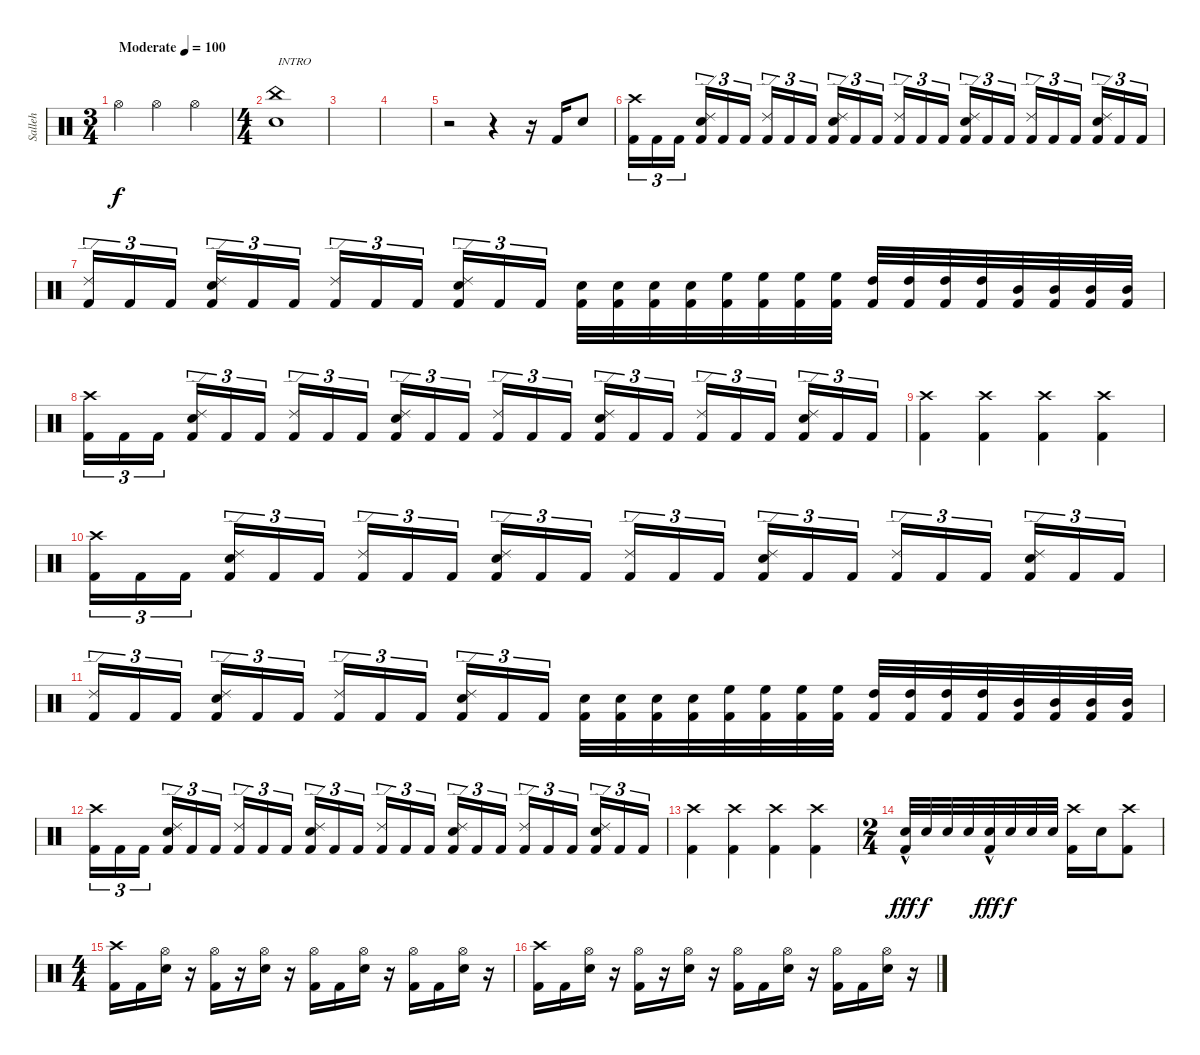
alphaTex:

\track ("Salleh" "Salleh") {instrument percussion}
\staff {score}
\articulation defaults
\ts (3 4)
\tempo (100 "Moderate")
\clef neutral
\ks c "Hi-Hat (open)".4{dy f} "Hi-Hat (open)".4 "Hi-Hat (open)".4
|
\ts (4 4)
("Electric Snare (hit)" "China (hit)").1{txt "INTRO"} |
|
|
r.2 r.4 r.16 "Kick (hit) 2".16 "Snare (hit) 2".8 |
("Crash high (hit)" "Kick (hit) 2").16{tu (3 2)} "Kick (hit) 2".16{tu (3 2)} "Kick (hit) 2".16{tu (3 2) beam splitsecondary} ("Ride (edge) 2" "Electric Snare (hit)" "Kick (hit) 2").16{tu (3 2)} "Kick (hit) 2".16{tu (3 2)} "Kick (hit) 2".16{tu (3 2)} ("Ride (edge) 2" "Kick (hit) 2").16{tu (3 2)} "Kick (hit) 2".16{tu (3 2)} "Kick (hit) 2".16{tu (3 2) beam splitsecondary} ("Ride (edge) 2" "Electric Snare (hit)" "Kick (hit) 2").16{tu (3 2)} "Kick (hit) 2".16{tu (3 2)} "Kick (hit) 2".16{tu (3 2)} ("Ride (edge) 2" "Kick (hit) 2").16{tu (3 2)} "Kick (hit) 2".16{tu (3 2)} "Kick (hit) 2".16{tu (3 2) beam splitsecondary} ("Ride (edge) 2" "Electric Snare (hit)" "Kick (hit) 2").16{tu (3 2)} "Kick (hit) 2".16{tu (3 2)} "Kick (hit) 2".16{tu (3 2)} ("Ride (edge) 2" "Kick (hit) 2").16{tu (3 2)} "Kick (hit) 2".16{tu (3 2)} "Kick (hit) 2".16{tu (3 2) beam splitsecondary} ("Ride (edge) 2" "Electric Snare (hit)" "Kick (hit) 2").16{tu (3 2)} "Kick (hit) 2".16{tu (3 2)} "Kick (hit) 2".16{tu (3 2)} |
("Ride (edge) 2" "Kick (hit) 2").16{tu (3 2)} "Kick (hit) 2".16{tu (3 2)} "Kick (hit) 2".16{tu (3 2) beam splitsecondary} ("Ride (edge) 2" "Electric Snare (hit)" "Kick (hit) 2").16{tu (3 2)} "Kick (hit) 2".16{tu (3 2)} "Kick (hit) 2".16{tu (3 2)} ("Ride (edge) 2" "Kick (hit) 2").16{tu (3 2)} "Kick (hit) 2".16{tu (3 2)} "Kick (hit) 2".16{tu (3 2) beam splitsecondary} ("Ride (edge) 2" "Electric Snare (hit)" "Kick (hit) 2").16{tu (3 2)} "Kick (hit) 2".16{tu (3 2)} "Kick (hit) 2".16{tu (3 2)} ("Electric Snare (hit)" "Kick (hit) 2").32 ("Electric Snare (hit)" "Kick (hit) 2").32 ("Electric Snare (hit)" "Kick (hit) 2").32 ("Electric Snare (hit)" "Kick (hit) 2").32 ("High Floor Tom (hit)" "Kick (hit) 2").32 ("High Floor Tom (hit)" "Kick (hit) 2").32 ("High Floor Tom (hit)" "Kick (hit) 2").32 ("High Floor Tom (hit)" "Kick (hit) 2").32 ("High Tom (hit)" "Kick (hit) 2").32 ("High Tom (hit)" "Kick (hit) 2").32 ("High Tom (hit)" "Kick (hit) 2").32 ("High Tom (hit)" "Kick (hit) 2").32 ("Mid Tom (hit)" "Kick (hit) 2").32 ("Mid Tom (hit)" "Kick (hit) 2").32 ("Mid Tom (hit)" "Kick (hit) 2").32 ("Mid Tom (hit)" "Kick (hit) 2").32 |
("Crash high (hit)" "Kick (hit) 2").16{tu (3 2)} "Kick (hit) 2".16{tu (3 2)} "Kick (hit) 2".16{tu (3 2) beam splitsecondary} ("Ride (edge) 2" "Electric Snare (hit)" "Kick (hit) 2").16{tu (3 2)} "Kick (hit) 2".16{tu (3 2)} "Kick (hit) 2".16{tu (3 2)} ("Ride (edge) 2" "Kick (hit) 2").16{tu (3 2)} "Kick (hit) 2".16{tu (3 2)} "Kick (hit) 2".16{tu (3 2) beam splitsecondary} ("Ride (edge) 2" "Electric Snare (hit)" "Kick (hit) 2").16{tu (3 2)} "Kick (hit) 2".16{tu (3 2)} "Kick (hit) 2".16{tu (3 2)} ("Ride (edge) 2" "Kick (hit) 2").16{tu (3 2)} "Kick (hit) 2".16{tu (3 2)} "Kick (hit) 2".16{tu (3 2) beam splitsecondary} ("Ride (edge) 2" "Electric Snare (hit)" "Kick (hit) 2").16{tu (3 2)} "Kick (hit) 2".16{tu (3 2)} "Kick (hit) 2".16{tu (3 2)} ("Ride (edge) 2" "Kick (hit) 2").16{tu (3 2)} "Kick (hit) 2".16{tu (3 2)} "Kick (hit) 2".16{tu (3 2) beam splitsecondary} ("Ride (edge) 2" "Electric Snare (hit)" "Kick (hit) 2").16{tu (3 2)} "Kick (hit) 2".16{tu (3 2)} "Kick (hit) 2".16{tu (3 2)} |
("Crash high (hit)" "Kick (hit) 2").4 ("Crash high (hit)" "Kick (hit) 2").4 ("Crash high (hit)" "Kick (hit) 2").4 ("Crash high (hit)" "Kick (hit) 2").4 |
("Crash high (hit)" "Kick (hit) 2").16{tu (3 2)} "Kick (hit) 2".16{tu (3 2)} "Kick (hit) 2".16{tu (3 2) beam splitsecondary} ("Ride (edge) 2" "Electric Snare (hit)" "Kick (hit) 2").16{tu (3 2)} "Kick (hit) 2".16{tu (3 2)} "Kick (hit) 2".16{tu (3 2)} ("Ride (edge) 2" "Kick (hit) 2").16{tu (3 2)} "Kick (hit) 2".16{tu (3 2)} "Kick (hit) 2".16{tu (3 2) beam splitsecondary} ("Ride (edge) 2" "Electric Snare (hit)" "Kick (hit) 2").16{tu (3 2)} "Kick (hit) 2".16{tu (3 2)} "Kick (hit) 2".16{tu (3 2)} ("Ride (edge) 2" "Kick (hit) 2").16{tu (3 2)} "Kick (hit) 2".16{tu (3 2)} "Kick (hit) 2".16{tu (3 2) beam splitsecondary} ("Ride (edge) 2" "Electric Snare (hit)" "Kick (hit) 2").16{tu (3 2)} "Kick (hit) 2".16{tu (3 2)} "Kick (hit) 2".16{tu (3 2)} ("Ride (edge) 2" "Kick (hit) 2").16{tu (3 2)} "Kick (hit) 2".16{tu (3 2)} "Kick (hit) 2".16{tu (3 2) beam splitsecondary} ("Ride (edge) 2" "Electric Snare (hit)" "Kick (hit) 2").16{tu (3 2)} "Kick (hit) 2".16{tu (3 2)} "Kick (hit) 2".16{tu (3 2)} |
("Ride (edge) 2" "Kick (hit) 2").16{tu (3 2)} "Kick (hit) 2".16{tu (3 2)} "Kick (hit) 2".16{tu (3 2) beam splitsecondary} ("Ride (edge) 2" "Electric Snare (hit)" "Kick (hit) 2").16{tu (3 2)} "Kick (hit) 2".16{tu (3 2)} "Kick (hit) 2".16{tu (3 2)} ("Ride (edge) 2" "Kick (hit) 2").16{tu (3 2)} "Kick (hit) 2".16{tu (3 2)} "Kick (hit) 2".16{tu (3 2) beam splitsecondary} ("Ride (edge) 2" "Electric Snare (hit)" "Kick (hit) 2").16{tu (3 2)} "Kick (hit) 2".16{tu (3 2)} "Kick (hit) 2".16{tu (3 2)} ("Electric Snare (hit)" "Kick (hit) 2").32 ("Electric Snare (hit)" "Kick (hit) 2").32 ("Electric Snare (hit)" "Kick (hit) 2").32 ("Electric Snare (hit)" "Kick (hit) 2").32 ("High Floor Tom (hit)" "Kick (hit) 2").32 ("High Floor Tom (hit)" "Kick (hit) 2").32 ("High Floor Tom (hit)" "Kick (hit) 2").32 ("High Floor Tom (hit)" "Kick (hit) 2").32 ("High Tom (hit)" "Kick (hit) 2").32 ("High Tom (hit)" "Kick (hit) 2").32 ("High Tom (hit)" "Kick (hit) 2").32 ("High Tom (hit)" "Kick (hit) 2").32 ("Mid Tom (hit)" "Kick (hit) 2").32 ("Mid Tom (hit)" "Kick (hit) 2").32 ("Mid Tom (hit)" "Kick (hit) 2").32 ("Mid Tom (hit)" "Kick (hit) 2").32 |
("Crash high (hit)" "Kick (hit) 2").16{tu (3 2)} "Kick (hit) 2".16{tu (3 2)} "Kick (hit) 2".16{tu (3 2) beam splitsecondary} ("Ride (edge) 2" "Electric Snare (hit)" "Kick (hit) 2").16{tu (3 2)} "Kick (hit) 2".16{tu (3 2)} "Kick (hit) 2".16{tu (3 2)} ("Ride (edge) 2" "Kick (hit) 2").16{tu (3 2)} "Kick (hit) 2".16{tu (3 2)} "Kick (hit) 2".16{tu (3 2) beam splitsecondary} ("Ride (edge) 2" "Electric Snare (hit)" "Kick (hit) 2").16{tu (3 2)} "Kick (hit) 2".16{tu (3 2)} "Kick (hit) 2".16{tu (3 2)} ("Ride (edge) 2" "Kick (hit) 2").16{tu (3 2)} "Kick (hit) 2".16{tu (3 2)} "Kick (hit) 2".16{tu (3 2) beam splitsecondary} ("Ride (edge) 2" "Electric Snare (hit)" "Kick (hit) 2").16{tu (3 2)} "Kick (hit) 2".16{tu (3 2)} "Kick (hit) 2".16{tu (3 2)} ("Ride (edge) 2" "Kick (hit) 2").16{tu (3 2)} "Kick (hit) 2".16{tu (3 2)} "Kick (hit) 2".16{tu (3 2) beam splitsecondary} ("Ride (edge) 2" "Electric Snare (hit)" "Kick (hit) 2").16{tu (3 2)} "Kick (hit) 2".16{tu (3 2)} "Kick (hit) 2".16{tu (3 2)} |
("Crash high (hit)" "Kick (hit) 2").4 ("Crash high (hit)" "Kick (hit) 2").4 ("Crash high (hit)" "Kick (hit) 2").4 ("Crash high (hit)" "Kick (hit) 2").4 |
\ts (2 4)
("Electric Snare (hit)"{hac} "Kick (hit) 2").32{dy fff} "Electric Snare (hit)".32{dy f} "Electric Snare (hit)".32 "Electric Snare (hit)".32 ("Electric Snare (hit)"{hac} "Kick (hit) 2").32{dy fff} "Electric Snare (hit)".32{dy f} "Electric Snare (hit)".32 "Electric Snare (hit)".32 ("Crash high (hit)" "Kick (hit) 2").16 "Electric Snare (hit)".16 ("Crash high (hit)" "Kick (hit) 2").8 |
\ts (4 4)
("Crash high (hit)" "Kick (hit) 2").16 "Kick (hit) 2".16 ("Hi-Hat (open)" "Electric Snare (hit)").16 r.16 ("Hi-Hat (open)" "Kick (hit) 2").16 r.16 ("Hi-Hat (open)" "Electric Snare (hit)").16 r.16 ("Hi-Hat (open)" "Kick (hit) 2").16 "Kick (hit) 2".16 ("Hi-Hat (open)" "Electric Snare (hit)").16 r.16 ("Hi-Hat (open)" "Kick (hit) 2").16 "Kick (hit) 2".16 ("Hi-Hat (open)" "Electric Snare (hit)").16 r.16 |
("Crash high (hit)" "Kick (hit) 2").16 "Kick (hit) 2".16 ("Hi-Hat (open)" "Electric Snare (hit)").16 r.16 ("Hi-Hat (open)" "Kick (hit) 2").16 r.16 ("Hi-Hat (open)" "Electric Snare (hit)").16 r.16 ("Hi-Hat (open)" "Kick (hit) 2").16 "Kick (hit) 2".16 ("Hi-Hat (open)" "Electric Snare (hit)").16 r.16 ("Hi-Hat (open)" "Kick (hit) 2").16 "Kick (hit) 2".16 ("Hi-Hat (open)" "Electric Snare (hit)").16 r.16
